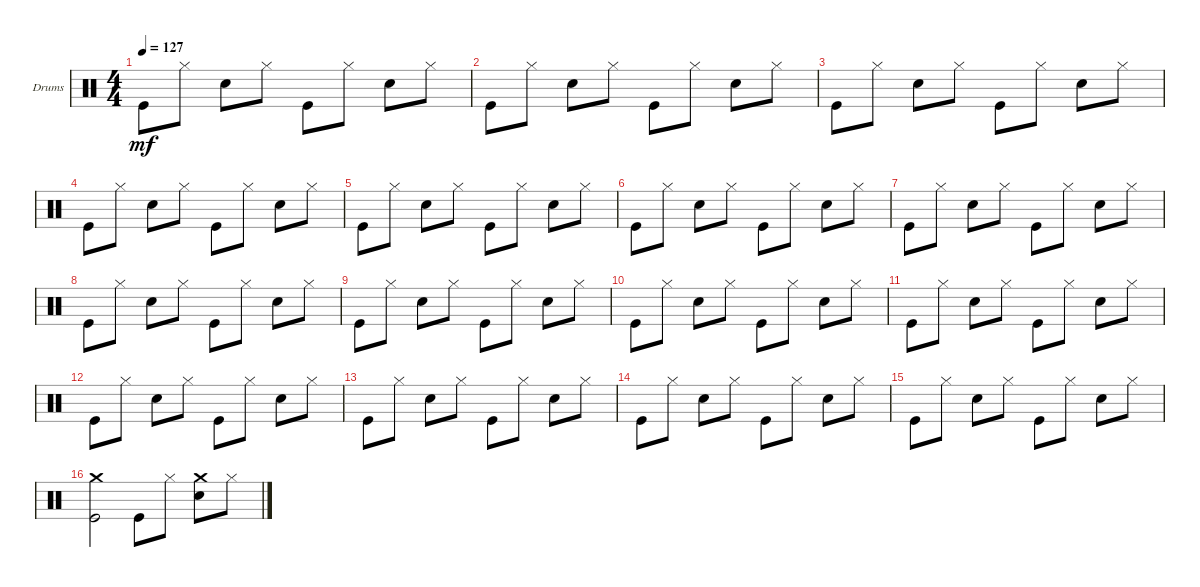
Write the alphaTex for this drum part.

\defaultSystemsLayout 4
\bracketExtendMode groupsimilarinstruments
\firstSystemTrackNameOrientation horizontal
\otherSystemsTrackNameOrientation horizontal
\track ("Е. Кулаков" "Drums") {instrument percussion}
\staff {score}
\articulation defaults
\ts (4 4)
\tempo 127
\clef neutral
\ks c "Kick (hit)".8{dy mf} "Hi-Hat (closed)".8 "Snare (hit) 2".8 "Hi-Hat (closed)".8 "Kick (hit)".8 "Hi-Hat (closed)".8 "Snare (hit) 2".8 "Hi-Hat (closed)".8
|
"Kick (hit)".8 "Hi-Hat (closed)".8 "Snare (hit) 2".8 "Hi-Hat (closed)".8 "Kick (hit)".8 "Hi-Hat (closed)".8 "Snare (hit) 2".8 "Hi-Hat (closed)".8 |
"Kick (hit)".8 "Hi-Hat (closed)".8 "Snare (hit) 2".8 "Hi-Hat (closed)".8 "Kick (hit)".8 "Hi-Hat (closed)".8 "Snare (hit) 2".8 "Hi-Hat (closed)".8 |
"Kick (hit)".8 "Hi-Hat (closed)".8 "Snare (hit) 2".8 "Hi-Hat (closed)".8 "Kick (hit)".8 "Hi-Hat (closed)".8 "Snare (hit) 2".8 "Hi-Hat (closed)".8 |
"Kick (hit)".8 "Hi-Hat (closed)".8 "Snare (hit) 2".8 "Hi-Hat (closed)".8 "Kick (hit)".8 "Hi-Hat (closed)".8 "Snare (hit) 2".8 "Hi-Hat (closed)".8 |
"Kick (hit)".8 "Hi-Hat (closed)".8 "Snare (hit) 2".8 "Hi-Hat (closed)".8 "Kick (hit)".8 "Hi-Hat (closed)".8 "Snare (hit) 2".8 "Hi-Hat (closed)".8 |
"Kick (hit)".8 "Hi-Hat (closed)".8 "Snare (hit) 2".8 "Hi-Hat (closed)".8 "Kick (hit)".8 "Hi-Hat (closed)".8 "Snare (hit) 2".8 "Hi-Hat (closed)".8 |
"Kick (hit)".8 "Hi-Hat (closed)".8 "Snare (hit) 2".8 "Hi-Hat (closed)".8 "Kick (hit)".8 "Hi-Hat (closed)".8 "Snare (hit) 2".8 "Hi-Hat (closed)".8 |
"Kick (hit)".8 "Hi-Hat (closed)".8 "Snare (hit) 2".8 "Hi-Hat (closed)".8 "Kick (hit)".8 "Hi-Hat (closed)".8 "Snare (hit) 2".8 "Hi-Hat (closed)".8 |
"Kick (hit)".8 "Hi-Hat (closed)".8 "Snare (hit) 2".8 "Hi-Hat (closed)".8 "Kick (hit)".8 "Hi-Hat (closed)".8 "Snare (hit) 2".8 "Hi-Hat (closed)".8 |
"Kick (hit)".8 "Hi-Hat (closed)".8 "Snare (hit) 2".8 "Hi-Hat (closed)".8 "Kick (hit)".8 "Hi-Hat (closed)".8 "Snare (hit) 2".8 "Hi-Hat (closed)".8 |
"Kick (hit)".8 "Hi-Hat (closed)".8 "Snare (hit) 2".8 "Hi-Hat (closed)".8 "Kick (hit)".8 "Hi-Hat (closed)".8 "Snare (hit) 2".8 "Hi-Hat (closed)".8 |
"Kick (hit)".8 "Hi-Hat (closed)".8 "Snare (hit) 2".8 "Hi-Hat (closed)".8 "Kick (hit)".8 "Hi-Hat (closed)".8 "Snare (hit) 2".8 "Hi-Hat (closed)".8 |
"Kick (hit)".8 "Hi-Hat (closed)".8 "Snare (hit) 2".8 "Hi-Hat (closed)".8 "Kick (hit)".8 "Hi-Hat (closed)".8 "Snare (hit) 2".8 "Hi-Hat (closed)".8 |
"Kick (hit)".8 "Hi-Hat (closed)".8 "Snare (hit) 2".8 "Hi-Hat (closed)".8 "Kick (hit)".8 "Hi-Hat (closed)".8 "Snare (hit) 2".8 "Hi-Hat (closed)".8 |
("Kick (hit)" "Crash medium (hit)").2 "Kick (hit)".8 "Hi-Hat (closed)".8 ("Snare (hit) 2" "Crash medium (hit)").8 "Hi-Hat (closed)".8
